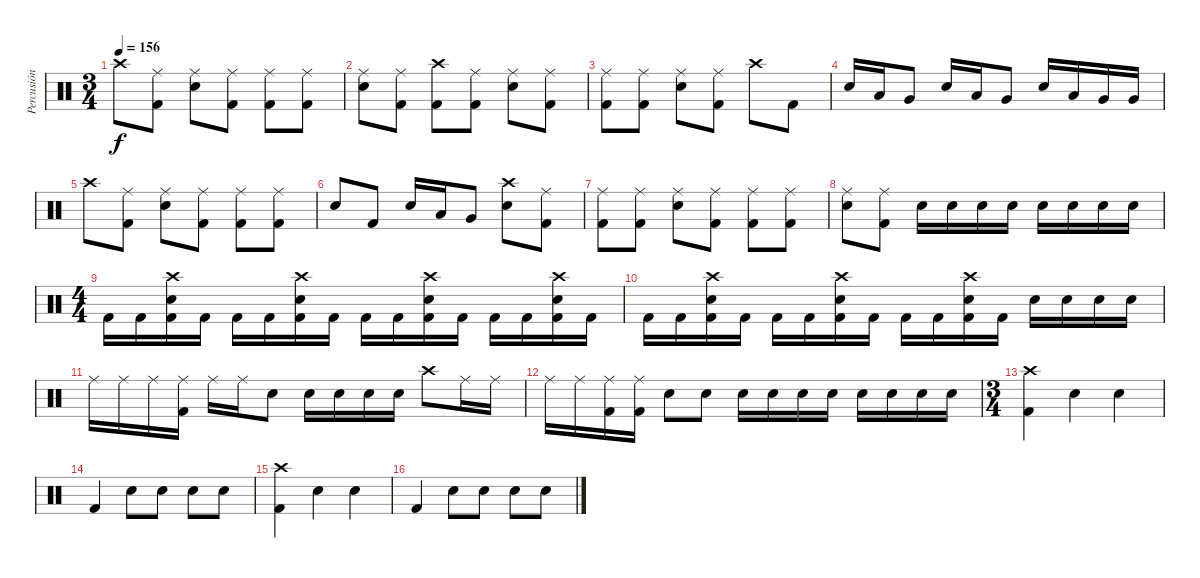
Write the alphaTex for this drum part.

\track ("Percusión" "Percusión") {instrument percussion}
\staff {score}
\articulation defaults
\ts (3 4)
\tempo 156
\clef neutral
\ks c "Crash high (hit)".8{dy f}
("Ride (middle)" "Kick (hit) 2").8 ("Ride (middle)" "Electric Snare (hit)").8 ("Ride (middle)" "Kick (hit) 2").8 ("Ride (middle)" "Kick (hit) 2").8 ("Ride (middle)" "Kick (hit) 2").8 |
("Ride (middle)" "Electric Snare (hit)").8 ("Ride (middle)" "Kick (hit) 2").8 ("Crash high (hit)" "Kick (hit) 2").8 ("Ride (middle)" "Kick (hit) 2").8 ("Ride (middle)" "Electric Snare (hit)").8 ("Ride (middle)" "Kick (hit) 2").8 |
("Ride (middle)" "Kick (hit) 2").8 ("Ride (middle)" "Kick (hit) 2").8 ("Ride (middle)" "Electric Snare (hit)").8 ("Ride (middle)" "Kick (hit) 2").8 "Crash high (hit)".8 "Kick (hit) 2".8 |
"Electric Snare (hit)".16 "Low Tom (hit)".16 "Very Low Tom (hit)".8 "Electric Snare (hit)".16 "Low Tom (hit)".16 "Very Low Tom (hit)".8 "Electric Snare (hit)".16 "Low Tom (hit)".16 "Very Low Tom (hit)".16 "Very Low Tom (hit)".16 |
"Crash high (hit)".8 ("Ride (middle)" "Kick (hit) 2").8 ("Ride (middle)" "Electric Snare (hit)").8 ("Ride (middle)" "Kick (hit) 2").8 ("Ride (middle)" "Kick (hit) 2").8 ("Ride (middle)" "Kick (hit) 2").8 |
"Electric Snare (hit)".8 "Kick (hit) 2".8 "Electric Snare (hit)".16 "Low Tom (hit)".16 "Very Low Tom (hit)".8 ("Crash high (hit)" "Electric Snare (hit)").8 ("Ride (middle)" "Kick (hit) 2").8 |
("Ride (middle)" "Kick (hit) 2").8 ("Ride (middle)" "Kick (hit) 2").8 ("Ride (middle)" "Electric Snare (hit)").8 ("Ride (middle)" "Kick (hit) 2").8 ("Ride (middle)" "Kick (hit) 2").8 ("Ride (middle)" "Kick (hit) 2").8 |
("Ride (middle)" "Electric Snare (hit)").8 ("Ride (middle)" "Kick (hit) 2").8 "Electric Snare (hit)".16 "Electric Snare (hit)".16 "Electric Snare (hit)".16 "Electric Snare (hit)".16 "Electric Snare (hit)".16 "Electric Snare (hit)".16 "Electric Snare (hit)".16 "Electric Snare (hit)".16 |
\ts (4 4)
"Kick (hit) 2".16 "Kick (hit) 2".16 ("Crash high (hit)" "Electric Snare (hit)" "Kick (hit) 2").16 "Kick (hit) 2".16 "Kick (hit) 2".16 "Kick (hit) 2".16 ("Crash high (hit)" "Electric Snare (hit)" "Kick (hit) 2").16 "Kick (hit) 2".16 "Kick (hit) 2".16 "Kick (hit) 2".16 ("Crash high (hit)" "Electric Snare (hit)" "Kick (hit) 2").16 "Kick (hit) 2".16 "Kick (hit) 2".16 "Kick (hit) 2".16 ("Crash high (hit)" "Electric Snare (hit)" "Kick (hit) 2").16 "Kick (hit) 2".16 |
"Kick (hit) 2".16 "Kick (hit) 2".16 ("Crash high (hit)" "Electric Snare (hit)" "Kick (hit) 2").16 "Kick (hit) 2".16 "Kick (hit) 2".16 "Kick (hit) 2".16 ("Crash high (hit)" "Electric Snare (hit)" "Kick (hit) 2").16 "Kick (hit) 2".16 "Kick (hit) 2".16 "Kick (hit) 2".16 ("Crash high (hit)" "Electric Snare (hit)" "Kick (hit) 2").16 "Kick (hit) 2".16 "Snare (hit) 2".16 "Snare (hit) 2".16 "Snare (hit) 2".16 "Snare (hit) 2".16 |
"Ride (middle)".16 "Ride (middle)".16 "Ride (middle)".16 ("Ride (middle)" "Kick (hit) 2").16 "Ride (middle)".16 "Ride (middle)".16 "Electric Snare (hit)".8 "Electric Snare (hit)".16 "Electric Snare (hit)".16 "Electric Snare (hit)".16 "Electric Snare (hit)".16 "Crash high (hit)".8 "Ride (middle)".16 "Ride (middle)".16 |
"Ride (middle)".16 "Ride (middle)".16 ("Ride (middle)" "Kick (hit) 2").16 ("Ride (middle)" "Kick (hit) 2").16 "Electric Snare (hit)".8 "Electric Snare (hit)".8 "Electric Snare (hit)".16 "Electric Snare (hit)".16 "Electric Snare (hit)".16 "Electric Snare (hit)".16 "Electric Snare (hit)".16 "Electric Snare (hit)".16 "Electric Snare (hit)".16 "Electric Snare (hit)".16 |
\ts (3 4)
("Crash high (hit)" "Kick (hit) 2").4 "Electric Snare (hit)".4 "Electric Snare (hit)".4 |
"Kick (hit) 2".4 "Electric Snare (hit)".8 "Electric Snare (hit)".8 "Electric Snare (hit)".8 "Electric Snare (hit)".8 |
("Crash high (hit)" "Kick (hit) 2").4 "Electric Snare (hit)".4 "Electric Snare (hit)".4 |
"Kick (hit) 2".4 "Electric Snare (hit)".8 "Electric Snare (hit)".8 "Electric Snare (hit)".8 "Electric Snare (hit)".8
